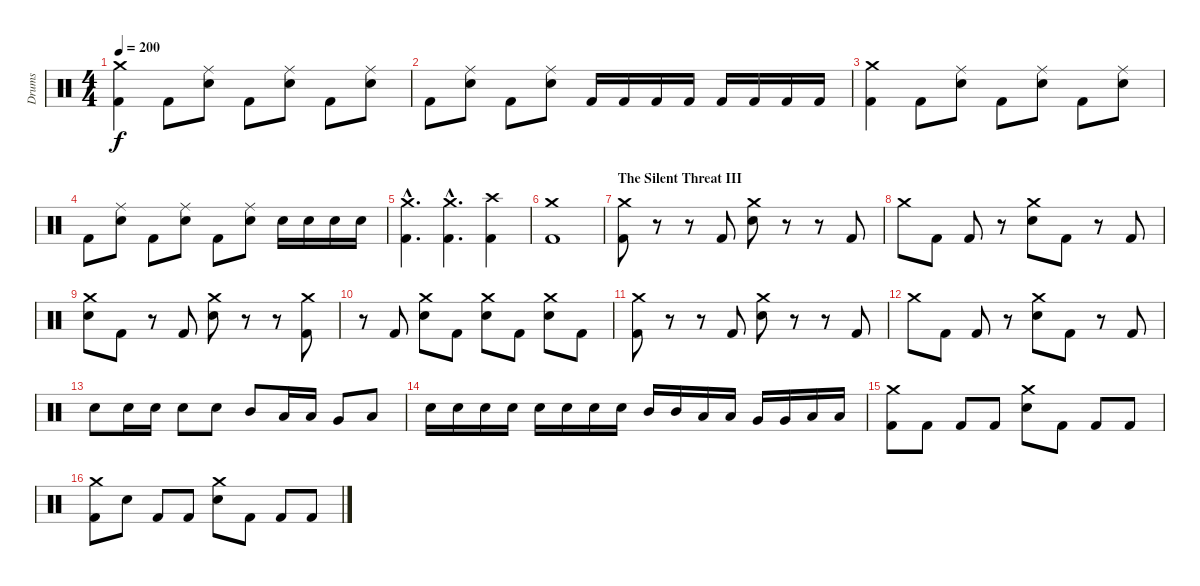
\track ("Drums" "Drums") {instrument percussion}
\staff {score}
\articulation defaults
\ts (4 4)
\tempo 200
\clef neutral
\ks c
("Crash medium (hit)" "Kick (hit) 2").4{dy f} "Kick (hit) 2".8 ("Ride (middle)" "Electric Snare (hit)").8 "Kick (hit) 2".8 ("Ride (middle)" "Electric Snare (hit)").8 "Kick (hit) 2".8 ("Ride (middle)" "Electric Snare (hit)").8 |
"Kick (hit) 2".8 ("Ride (middle)" "Electric Snare (hit)").8 "Kick (hit) 2".8 ("Ride (middle)" "Electric Snare (hit)").8 "Kick (hit) 2".16 "Kick (hit) 2".16 "Kick (hit) 2".16 "Kick (hit) 2".16 "Kick (hit) 2".16 "Kick (hit) 2".16 "Kick (hit) 2".16 "Kick (hit) 2".16 |
("Crash medium (hit)" "Kick (hit) 2").4 "Kick (hit) 2".8 ("Ride (middle)" "Electric Snare (hit)").8 "Kick (hit) 2".8 ("Ride (middle)" "Electric Snare (hit)").8 "Kick (hit) 2".8 ("Ride (middle)" "Electric Snare (hit)").8 |
"Kick (hit) 2".8 ("Ride (middle)" "Electric Snare (hit)").8 "Kick (hit) 2".8 ("Ride (middle)" "Electric Snare (hit)").8 "Kick (hit) 2".8 ("Ride (middle)" "Electric Snare (hit)").8 "Electric Snare (hit)".16 "Electric Snare (hit)".16 "Electric Snare (hit)".16 "Electric Snare (hit)".16 |
("Crash medium (hit)"{hac} "Kick (hit) 2"{hac}).4{d} ("Crash medium (hit)"{hac} "Kick (hit) 2"{hac}).4{d} ("Crash high (hit)" "Kick (hit) 2").4 |
("Crash medium (hit)" "Kick (hit) 2").1 |
\section ("" "The Silent Threat III")
("Crash medium (hit)" "Kick (hit) 2").8 r.8 r.8 "Kick (hit) 2".8 ("Crash medium (hit)" "Electric Snare (hit)").8 r.8 r.8 "Kick (hit) 2".8 |
"Crash medium (hit)".8 "Kick (hit) 2".8 "Kick (hit) 2".8 r.8 ("Crash medium (hit)" "Electric Snare (hit)").8 "Kick (hit) 2".8 r.8 "Kick (hit) 2".8 |
("Crash medium (hit)" "Electric Snare (hit)").8 "Kick (hit) 2".8 r.8 "Kick (hit) 2".8 ("Crash medium (hit)" "Electric Snare (hit)").8 r.8 r.8 ("Crash medium (hit)" "Kick (hit) 2").8 |
r.8 "Kick (hit) 2".8 ("Crash medium (hit)" "Electric Snare (hit)").8 "Kick (hit) 2".8 ("Crash medium (hit)" "Electric Snare (hit)").8 "Kick (hit) 2".8 ("Crash medium (hit)" "Electric Snare (hit)").8 "Kick (hit) 2".8 |
("Crash medium (hit)" "Kick (hit) 2").8 r.8 r.8 "Kick (hit) 2".8 ("Crash medium (hit)" "Electric Snare (hit)").8 r.8 r.8 "Kick (hit) 2".8 |
"Crash medium (hit)".8 "Kick (hit) 2".8 "Kick (hit) 2".8 r.8 ("Crash medium (hit)" "Electric Snare (hit)").8 "Kick (hit) 2".8 r.8 "Kick (hit) 2".8 |
"Electric Snare (hit)".8 "Electric Snare (hit)".16 "Electric Snare (hit)".16 "Electric Snare (hit)".8 "Electric Snare (hit)".8 "Mid Tom (hit)".8 "Low Tom (hit)".16 "Low Tom (hit)".16 "Very Low Tom (hit)".8 "Low Floor Tom (hit)".8 |
"Electric Snare (hit)".16 "Electric Snare (hit)".16 "Electric Snare (hit)".16 "Electric Snare (hit)".16 "Electric Snare (hit)".16 "Electric Snare (hit)".16 "Electric Snare (hit)".16 "Electric Snare (hit)".16 "Mid Tom (hit)".16 "Mid Tom (hit)".16 "Low Tom (hit)".16 "Low Tom (hit)".16 "Very Low Tom (hit)".16 "Very Low Tom (hit)".16 "Low Floor Tom (hit)".16 "Low Floor Tom (hit)".16 |
("Crash medium (hit)" "Kick (hit) 2").8 "Kick (hit) 2".8 "Kick (hit) 2".8 "Kick (hit) 2".8 ("Crash medium (hit)" "Electric Snare (hit)").8 "Kick (hit) 2".8 "Kick (hit) 2".8 "Kick (hit) 2".8 |
("Crash medium (hit)" "Kick (hit) 2").8 "Electric Snare (hit)".8 "Kick (hit) 2".8 "Kick (hit) 2".8 ("Crash medium (hit)" "Electric Snare (hit)").8 "Kick (hit) 2".8 "Kick (hit) 2".8 "Kick (hit) 2".8
